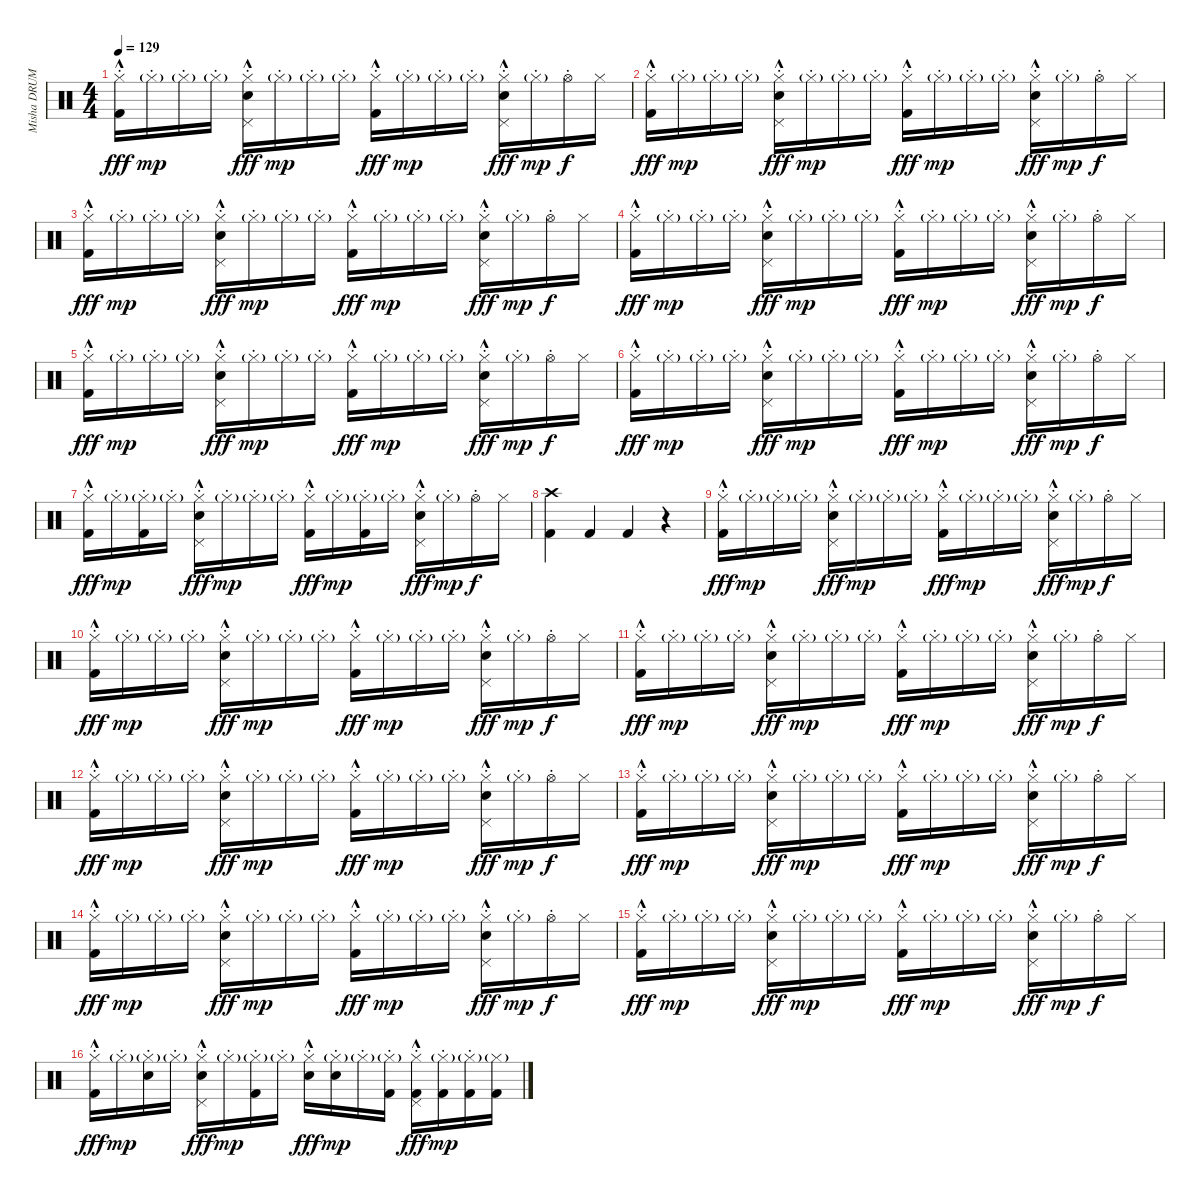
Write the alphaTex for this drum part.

\track ("Misha DRUMS" "Misha DRUM") {instrument percussion}
\staff {score}
\articulation defaults
\ts (4 4)
\tempo 129
\clef neutral
\ks c
("Hi-Hat (closed)"{hac st} "Kick (hit) 2").16{dy fff} "Hi-Hat (closed)"{g st}.16{dy mp} "Hi-Hat (closed)"{g st}.16 "Hi-Hat (closed)"{g st}.16 ("Hi-Hat (closed)"{hac st} "Pedal Hi-Hat (hit)" "Snare (hit) 2").16{dy fff} "Hi-Hat (closed)"{g st}.16{dy mp} "Hi-Hat (closed)"{g st}.16 "Hi-Hat (closed)"{g st}.16 ("Hi-Hat (closed)"{hac st} "Kick (hit) 2").16{dy fff} "Hi-Hat (closed)"{g st}.16{dy mp} "Hi-Hat (closed)"{g st}.16 "Hi-Hat (closed)"{g st}.16 ("Hi-Hat (closed)"{hac st} "Pedal Hi-Hat (hit)" "Snare (hit) 2").16{dy fff} "Hi-Hat (closed)"{g st}.16{dy mp} "Hi-Hat (open)"{st}.16{dy f} "Hi-Hat (closed)".16 |
("Hi-Hat (closed)"{hac st} "Kick (hit) 2").16{dy fff} "Hi-Hat (closed)"{g st}.16{dy mp} "Hi-Hat (closed)"{g st}.16 "Hi-Hat (closed)"{g st}.16 ("Hi-Hat (closed)"{hac st} "Pedal Hi-Hat (hit)" "Snare (hit) 2").16{dy fff} "Hi-Hat (closed)"{g st}.16{dy mp} "Hi-Hat (closed)"{g st}.16 "Hi-Hat (closed)"{g st}.16 ("Hi-Hat (closed)"{hac st} "Kick (hit) 2").16{dy fff} "Hi-Hat (closed)"{g st}.16{dy mp} "Hi-Hat (closed)"{g st}.16 "Hi-Hat (closed)"{g st}.16 ("Hi-Hat (closed)"{hac st} "Pedal Hi-Hat (hit)" "Snare (hit) 2").16{dy fff} "Hi-Hat (closed)"{g st}.16{dy mp} "Hi-Hat (open)"{st}.16{dy f} "Hi-Hat (closed)".16 |
("Hi-Hat (closed)"{hac st} "Kick (hit) 2").16{dy fff} "Hi-Hat (closed)"{g st}.16{dy mp} "Hi-Hat (closed)"{g st}.16 "Hi-Hat (closed)"{g st}.16 ("Hi-Hat (closed)"{hac st} "Pedal Hi-Hat (hit)" "Snare (hit) 2").16{dy fff} "Hi-Hat (closed)"{g st}.16{dy mp} "Hi-Hat (closed)"{g st}.16 "Hi-Hat (closed)"{g st}.16 ("Hi-Hat (closed)"{hac st} "Kick (hit) 2").16{dy fff} "Hi-Hat (closed)"{g st}.16{dy mp} "Hi-Hat (closed)"{g st}.16 "Hi-Hat (closed)"{g st}.16 ("Hi-Hat (closed)"{hac st} "Pedal Hi-Hat (hit)" "Snare (hit) 2").16{dy fff} "Hi-Hat (closed)"{g st}.16{dy mp} "Hi-Hat (open)"{st}.16{dy f} "Hi-Hat (closed)".16 |
("Hi-Hat (closed)"{hac st} "Kick (hit) 2").16{dy fff} "Hi-Hat (closed)"{g st}.16{dy mp} "Hi-Hat (closed)"{g st}.16 "Hi-Hat (closed)"{g st}.16 ("Hi-Hat (closed)"{hac st} "Pedal Hi-Hat (hit)" "Snare (hit) 2").16{dy fff} "Hi-Hat (closed)"{g st}.16{dy mp} "Hi-Hat (closed)"{g st}.16 "Hi-Hat (closed)"{g st}.16 ("Hi-Hat (closed)"{hac st} "Kick (hit) 2").16{dy fff} "Hi-Hat (closed)"{g st}.16{dy mp} "Hi-Hat (closed)"{g st}.16 "Hi-Hat (closed)"{g st}.16 ("Hi-Hat (closed)"{hac st} "Pedal Hi-Hat (hit)" "Snare (hit) 2").16{dy fff} "Hi-Hat (closed)"{g st}.16{dy mp} "Hi-Hat (open)"{st}.16{dy f} "Hi-Hat (closed)".16 |
("Hi-Hat (closed)"{hac st} "Kick (hit) 2").16{dy fff} "Hi-Hat (closed)"{g st}.16{dy mp} "Hi-Hat (closed)"{g st}.16 "Hi-Hat (closed)"{g st}.16 ("Hi-Hat (closed)"{hac st} "Pedal Hi-Hat (hit)" "Snare (hit) 2").16{dy fff} "Hi-Hat (closed)"{g st}.16{dy mp} "Hi-Hat (closed)"{g st}.16 "Hi-Hat (closed)"{g st}.16 ("Hi-Hat (closed)"{hac st} "Kick (hit) 2").16{dy fff} "Hi-Hat (closed)"{g st}.16{dy mp} "Hi-Hat (closed)"{g st}.16 "Hi-Hat (closed)"{g st}.16 ("Hi-Hat (closed)"{hac st} "Pedal Hi-Hat (hit)" "Snare (hit) 2").16{dy fff} "Hi-Hat (closed)"{g st}.16{dy mp} "Hi-Hat (open)"{st}.16{dy f} "Hi-Hat (closed)".16 |
("Hi-Hat (closed)"{hac st} "Kick (hit) 2").16{dy fff} "Hi-Hat (closed)"{g st}.16{dy mp} "Hi-Hat (closed)"{g st}.16 "Hi-Hat (closed)"{g st}.16 ("Hi-Hat (closed)"{hac st} "Pedal Hi-Hat (hit)" "Snare (hit) 2").16{dy fff} "Hi-Hat (closed)"{g st}.16{dy mp} "Hi-Hat (closed)"{g st}.16 "Hi-Hat (closed)"{g st}.16 ("Hi-Hat (closed)"{hac st} "Kick (hit) 2").16{dy fff} "Hi-Hat (closed)"{g st}.16{dy mp} "Hi-Hat (closed)"{g st}.16 "Hi-Hat (closed)"{g st}.16 ("Hi-Hat (closed)"{hac st} "Pedal Hi-Hat (hit)" "Snare (hit) 2").16{dy fff} "Hi-Hat (closed)"{g st}.16{dy mp} "Hi-Hat (open)"{st}.16{dy f} "Hi-Hat (closed)".16 |
("Hi-Hat (closed)"{hac st} "Kick (hit) 2").16{dy fff} "Hi-Hat (closed)"{g st}.16{dy mp} ("Hi-Hat (closed)"{g st} "Kick (hit) 2").16 "Hi-Hat (closed)"{g st}.16 ("Hi-Hat (closed)"{hac st} "Pedal Hi-Hat (hit)" "Snare (hit) 2").16{dy fff} "Hi-Hat (closed)"{g st}.16{dy mp} "Hi-Hat (closed)"{g st}.16 "Hi-Hat (closed)"{g st}.16 ("Hi-Hat (closed)"{hac st} "Kick (hit) 2").16{dy fff} "Hi-Hat (closed)"{g st}.16{dy mp} ("Hi-Hat (closed)"{g st} "Kick (hit) 2").16 "Hi-Hat (closed)"{g st}.16 ("Hi-Hat (closed)"{hac st} "Pedal Hi-Hat (hit)" "Snare (hit) 2").16{dy fff} "Hi-Hat (closed)"{g st}.16{dy mp} "Hi-Hat (open)"{st}.16{dy f} "Hi-Hat (closed)".16 |
("Crash high (hit)" "Kick (hit) 2").4 "Kick (hit) 2".4 "Kick (hit) 2".4 r.4 |
("Hi-Hat (closed)"{hac st} "Kick (hit) 2").16{dy fff} "Hi-Hat (closed)"{g st}.16{dy mp} "Hi-Hat (closed)"{g st}.16 "Hi-Hat (closed)"{g st}.16 ("Hi-Hat (closed)"{hac st} "Pedal Hi-Hat (hit)" "Snare (hit) 2").16{dy fff} "Hi-Hat (closed)"{g st}.16{dy mp} "Hi-Hat (closed)"{g st}.16 "Hi-Hat (closed)"{g st}.16 ("Hi-Hat (closed)"{hac st} "Kick (hit) 2").16{dy fff} "Hi-Hat (closed)"{g st}.16{dy mp} "Hi-Hat (closed)"{g st}.16 "Hi-Hat (closed)"{g st}.16 ("Hi-Hat (closed)"{hac st} "Pedal Hi-Hat (hit)" "Snare (hit) 2").16{dy fff} "Hi-Hat (closed)"{g st}.16{dy mp} "Hi-Hat (open)"{st}.16{dy f} "Hi-Hat (closed)".16 |
("Hi-Hat (closed)"{hac st} "Kick (hit) 2").16{dy fff} "Hi-Hat (closed)"{g st}.16{dy mp} "Hi-Hat (closed)"{g st}.16 "Hi-Hat (closed)"{g st}.16 ("Hi-Hat (closed)"{hac st} "Pedal Hi-Hat (hit)" "Snare (hit) 2").16{dy fff} "Hi-Hat (closed)"{g st}.16{dy mp} "Hi-Hat (closed)"{g st}.16 "Hi-Hat (closed)"{g st}.16 ("Hi-Hat (closed)"{hac st} "Kick (hit) 2").16{dy fff} "Hi-Hat (closed)"{g st}.16{dy mp} "Hi-Hat (closed)"{g st}.16 "Hi-Hat (closed)"{g st}.16 ("Hi-Hat (closed)"{hac st} "Pedal Hi-Hat (hit)" "Snare (hit) 2").16{dy fff} "Hi-Hat (closed)"{g st}.16{dy mp} "Hi-Hat (open)"{st}.16{dy f} "Hi-Hat (closed)".16 |
("Hi-Hat (closed)"{hac st} "Kick (hit) 2").16{dy fff} "Hi-Hat (closed)"{g st}.16{dy mp} "Hi-Hat (closed)"{g st}.16 "Hi-Hat (closed)"{g st}.16 ("Hi-Hat (closed)"{hac st} "Pedal Hi-Hat (hit)" "Snare (hit) 2").16{dy fff} "Hi-Hat (closed)"{g st}.16{dy mp} "Hi-Hat (closed)"{g st}.16 "Hi-Hat (closed)"{g st}.16 ("Hi-Hat (closed)"{hac st} "Kick (hit) 2").16{dy fff} "Hi-Hat (closed)"{g st}.16{dy mp} "Hi-Hat (closed)"{g st}.16 "Hi-Hat (closed)"{g st}.16 ("Hi-Hat (closed)"{hac st} "Pedal Hi-Hat (hit)" "Snare (hit) 2").16{dy fff} "Hi-Hat (closed)"{g st}.16{dy mp} "Hi-Hat (open)"{st}.16{dy f} "Hi-Hat (closed)".16 |
("Hi-Hat (closed)"{hac st} "Kick (hit) 2").16{dy fff} "Hi-Hat (closed)"{g st}.16{dy mp} "Hi-Hat (closed)"{g st}.16 "Hi-Hat (closed)"{g st}.16 ("Hi-Hat (closed)"{hac st} "Pedal Hi-Hat (hit)" "Snare (hit) 2").16{dy fff} "Hi-Hat (closed)"{g st}.16{dy mp} "Hi-Hat (closed)"{g st}.16 "Hi-Hat (closed)"{g st}.16 ("Hi-Hat (closed)"{hac st} "Kick (hit) 2").16{dy fff} "Hi-Hat (closed)"{g st}.16{dy mp} "Hi-Hat (closed)"{g st}.16 "Hi-Hat (closed)"{g st}.16 ("Hi-Hat (closed)"{hac st} "Pedal Hi-Hat (hit)" "Snare (hit) 2").16{dy fff} "Hi-Hat (closed)"{g st}.16{dy mp} "Hi-Hat (open)"{st}.16{dy f} "Hi-Hat (closed)".16 |
("Hi-Hat (closed)"{hac st} "Kick (hit) 2").16{dy fff} "Hi-Hat (closed)"{g st}.16{dy mp} "Hi-Hat (closed)"{g st}.16 "Hi-Hat (closed)"{g st}.16 ("Hi-Hat (closed)"{hac st} "Pedal Hi-Hat (hit)" "Snare (hit) 2").16{dy fff} "Hi-Hat (closed)"{g st}.16{dy mp} "Hi-Hat (closed)"{g st}.16 "Hi-Hat (closed)"{g st}.16 ("Hi-Hat (closed)"{hac st} "Kick (hit) 2").16{dy fff} "Hi-Hat (closed)"{g st}.16{dy mp} "Hi-Hat (closed)"{g st}.16 "Hi-Hat (closed)"{g st}.16 ("Hi-Hat (closed)"{hac st} "Pedal Hi-Hat (hit)" "Snare (hit) 2").16{dy fff} "Hi-Hat (closed)"{g st}.16{dy mp} "Hi-Hat (open)"{st}.16{dy f} "Hi-Hat (closed)".16 |
("Hi-Hat (closed)"{hac st} "Kick (hit) 2").16{dy fff} "Hi-Hat (closed)"{g st}.16{dy mp} "Hi-Hat (closed)"{g st}.16 "Hi-Hat (closed)"{g st}.16 ("Hi-Hat (closed)"{hac st} "Pedal Hi-Hat (hit)" "Snare (hit) 2").16{dy fff} "Hi-Hat (closed)"{g st}.16{dy mp} "Hi-Hat (closed)"{g st}.16 "Hi-Hat (closed)"{g st}.16 ("Hi-Hat (closed)"{hac st} "Kick (hit) 2").16{dy fff} "Hi-Hat (closed)"{g st}.16{dy mp} "Hi-Hat (closed)"{g st}.16 "Hi-Hat (closed)"{g st}.16 ("Hi-Hat (closed)"{hac st} "Pedal Hi-Hat (hit)" "Snare (hit) 2").16{dy fff} "Hi-Hat (closed)"{g st}.16{dy mp} "Hi-Hat (open)"{st}.16{dy f} "Hi-Hat (closed)".16 |
("Hi-Hat (closed)"{hac st} "Kick (hit) 2").16{dy fff} "Hi-Hat (closed)"{g st}.16{dy mp} "Hi-Hat (closed)"{g st}.16 "Hi-Hat (closed)"{g st}.16 ("Hi-Hat (closed)"{hac st} "Pedal Hi-Hat (hit)" "Snare (hit) 2").16{dy fff} "Hi-Hat (closed)"{g st}.16{dy mp} "Hi-Hat (closed)"{g st}.16 "Hi-Hat (closed)"{g st}.16 ("Hi-Hat (closed)"{hac st} "Kick (hit) 2").16{dy fff} "Hi-Hat (closed)"{g st}.16{dy mp} "Hi-Hat (closed)"{g st}.16 "Hi-Hat (closed)"{g st}.16 ("Hi-Hat (closed)"{hac st} "Pedal Hi-Hat (hit)" "Snare (hit) 2").16{dy fff} "Hi-Hat (closed)"{g st}.16{dy mp} "Hi-Hat (open)"{st}.16{dy f} "Hi-Hat (closed)".16 |
("Hi-Hat (closed)"{hac st} "Kick (hit) 2").16{dy fff} "Hi-Hat (closed)"{g st}.16{dy mp} ("Hi-Hat (closed)"{g st} "Snare (hit) 2").16 "Hi-Hat (closed)"{g st}.16 ("Hi-Hat (closed)"{hac st} "Pedal Hi-Hat (hit)" "Snare (hit) 2").16{dy fff} "Hi-Hat (closed)"{g st}.16{dy mp} ("Hi-Hat (closed)"{g st} "Kick (hit) 2").16 "Hi-Hat (closed)"{g st}.16 ("Hi-Hat (closed)"{hac st} "Snare (hit) 2").16{dy fff} ("Hi-Hat (closed)"{g st} "Snare (hit) 2").16{dy mp} "Hi-Hat (closed)"{g st}.16 ("Hi-Hat (closed)"{g st} "Kick (hit) 2").16 ("Hi-Hat (closed)"{hac st} "Pedal Hi-Hat (hit)" "Kick (hit) 2").16{dy fff} ("Hi-Hat (closed)"{g st} "Kick (hit) 2").16{dy mp} ("Hi-Hat (closed)"{g st} "Kick (hit) 2").16 ("Hi-Hat (closed)"{g} "Kick (hit) 2").16
